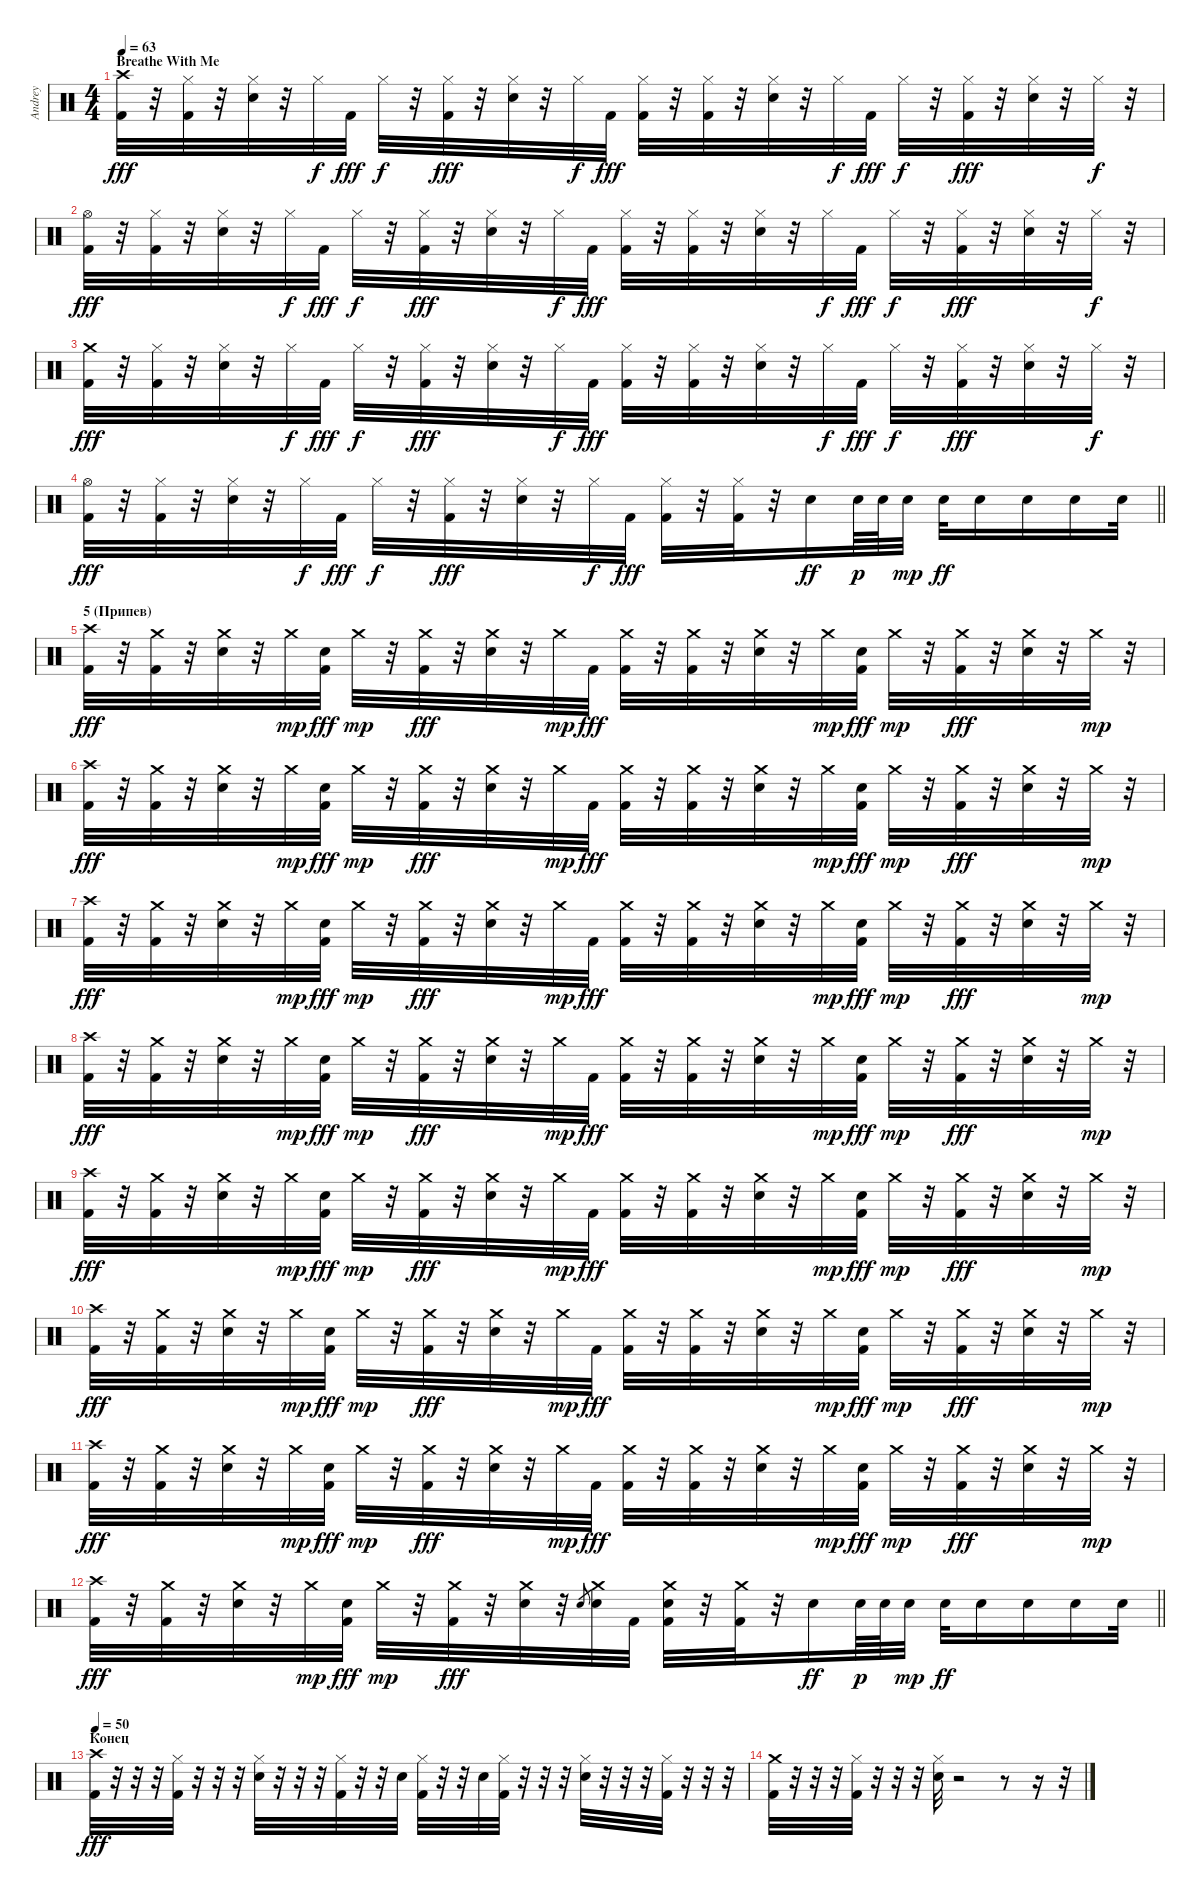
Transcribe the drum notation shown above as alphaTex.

\track ("Andrey" "Andrey") {instrument percussion}
\staff {score}
\articulation defaults
\ts (4 4)
\section ("" "Breathe With Me")
\tempo 63
\clef neutral
\ks c
("Crash high (hit)" "Kick (hit) 2").32{dy fff} r.32 ("Hi-Hat (closed)" "Kick (hit) 2").32 r.32 ("Hi-Hat (closed)" "Snare (hit) 2").32 r.32 "Hi-Hat (closed)".32{dy f} "Kick (hit) 2".32{dy fff} "Hi-Hat (closed)".32{dy f} r.32 ("Hi-Hat (closed)" "Kick (hit) 2").32{dy fff} r.32 ("Hi-Hat (closed)" "Snare (hit) 2").32 r.32 "Hi-Hat (closed)".32{dy f} "Kick (hit) 2".32{dy fff} ("Hi-Hat (closed)" "Kick (hit) 2").32 r.32 ("Hi-Hat (closed)" "Kick (hit) 2").32 r.32 ("Hi-Hat (closed)" "Snare (hit) 2").32 r.32 "Hi-Hat (closed)".32{dy f} "Kick (hit) 2".32{dy fff} "Hi-Hat (closed)".32{dy f} r.32 ("Hi-Hat (closed)" "Kick (hit) 2").32{dy fff} r.32 ("Hi-Hat (closed)" "Snare (hit) 2").32 r.32 "Hi-Hat (closed)".32{dy f} r.32 |
("Hi-Hat (open)" "Kick (hit) 2").32{dy fff} r.32 ("Hi-Hat (closed)" "Kick (hit) 2").32 r.32 ("Hi-Hat (closed)" "Snare (hit) 2").32 r.32 "Hi-Hat (closed)".32{dy f} "Kick (hit) 2".32{dy fff} "Hi-Hat (closed)".32{dy f} r.32 ("Hi-Hat (closed)" "Kick (hit) 2").32{dy fff} r.32 ("Hi-Hat (closed)" "Snare (hit) 2").32 r.32 "Hi-Hat (closed)".32{dy f} "Kick (hit) 2".32{dy fff} ("Hi-Hat (closed)" "Kick (hit) 2").32 r.32 ("Hi-Hat (closed)" "Kick (hit) 2").32 r.32 ("Hi-Hat (closed)" "Snare (hit) 2").32 r.32 "Hi-Hat (closed)".32{dy f} "Kick (hit) 2".32{dy fff} "Hi-Hat (closed)".32{dy f} r.32 ("Hi-Hat (closed)" "Kick (hit) 2").32{dy fff} r.32 ("Hi-Hat (closed)" "Snare (hit) 2").32 r.32 "Hi-Hat (closed)".32{dy f} r.32 |
("Crash medium (hit)" "Kick (hit) 2").32{dy fff} r.32 ("Hi-Hat (closed)" "Kick (hit) 2").32 r.32 ("Hi-Hat (closed)" "Snare (hit) 2").32 r.32 "Hi-Hat (closed)".32{dy f} "Kick (hit) 2".32{dy fff} "Hi-Hat (closed)".32{dy f} r.32 ("Hi-Hat (closed)" "Kick (hit) 2").32{dy fff} r.32 ("Hi-Hat (closed)" "Snare (hit) 2").32 r.32 "Hi-Hat (closed)".32{dy f} "Kick (hit) 2".32{dy fff} ("Hi-Hat (closed)" "Kick (hit) 2").32 r.32 ("Hi-Hat (closed)" "Kick (hit) 2").32 r.32 ("Hi-Hat (closed)" "Snare (hit) 2").32 r.32 "Hi-Hat (closed)".32{dy f} "Kick (hit) 2".32{dy fff} "Hi-Hat (closed)".32{dy f} r.32 ("Hi-Hat (closed)" "Kick (hit) 2").32{dy fff} r.32 ("Hi-Hat (closed)" "Snare (hit) 2").32 r.32 "Hi-Hat (closed)".32{dy f} r.32 |
\barLineRight lightlight
("Hi-Hat (open)" "Kick (hit) 2").32{dy fff} r.32 ("Hi-Hat (closed)" "Kick (hit) 2").32 r.32 ("Hi-Hat (closed)" "Snare (hit) 2").32 r.32 "Hi-Hat (closed)".32{dy f} "Kick (hit) 2".32{dy fff} "Hi-Hat (closed)".32{dy f} r.32 ("Hi-Hat (closed)" "Kick (hit) 2").32{dy fff} r.32 ("Hi-Hat (closed)" "Snare (hit) 2").32 r.32 "Hi-Hat (closed)".32{dy f} "Kick (hit) 2".32{dy fff} ("Hi-Hat (closed)" "Kick (hit) 2").32 r.32 ("Hi-Hat (closed)" "Kick (hit) 2").32 r.32 "Electric Snare (hit)".16{dy ff} "Electric Snare (hit)".64{dy p} "Electric Snare (hit)".64 "Electric Snare (hit)".32{dy mp} "Electric Snare (hit)".32{dy ff} "Electric Snare (hit)".16 "Electric Snare (hit)".16 "Electric Snare (hit)".16 "Electric Snare (hit)".32 |
\section ("" "5 (Припев)")
("Crash high (hit)" "Kick (hit) 2").32{dy fff} r.32 ("Crash medium (hit)" "Kick (hit) 2").32 r.32 ("Crash medium (hit)" "Snare (hit) 2").32 r.32 "Crash medium (hit)".32{dy mp} ("Snare (hit) 2" "Kick (hit) 2").32{dy fff} "Crash medium (hit)".32{dy mp} r.32 ("Crash medium (hit)" "Kick (hit) 2").32{dy fff} r.32 ("Crash medium (hit)" "Snare (hit) 2").32 r.32 "Crash medium (hit)".32{dy mp} "Kick (hit) 2".32{dy fff} ("Crash medium (hit)" "Kick (hit) 2").32 r.32 ("Crash medium (hit)" "Kick (hit) 2").32 r.32 ("Crash medium (hit)" "Snare (hit) 2").32 r.32 "Crash medium (hit)".32{dy mp} ("Snare (hit) 2" "Kick (hit) 2").32{dy fff} "Crash medium (hit)".32{dy mp} r.32 ("Crash medium (hit)" "Kick (hit) 2").32{dy fff} r.32 ("Crash medium (hit)" "Snare (hit) 2").32 r.32 "Crash medium (hit)".32{dy mp} r.32 |
("Crash high (hit)" "Kick (hit) 2").32{dy fff} r.32 ("Crash medium (hit)" "Kick (hit) 2").32 r.32 ("Crash medium (hit)" "Snare (hit) 2").32 r.32 "Crash medium (hit)".32{dy mp} ("Snare (hit) 2" "Kick (hit) 2").32{dy fff} "Crash medium (hit)".32{dy mp} r.32 ("Crash medium (hit)" "Kick (hit) 2").32{dy fff} r.32 ("Crash medium (hit)" "Snare (hit) 2").32 r.32 "Crash medium (hit)".32{dy mp} "Kick (hit) 2".32{dy fff} ("Crash medium (hit)" "Kick (hit) 2").32 r.32 ("Crash medium (hit)" "Kick (hit) 2").32 r.32 ("Crash medium (hit)" "Snare (hit) 2").32 r.32 "Crash medium (hit)".32{dy mp} ("Snare (hit) 2" "Kick (hit) 2").32{dy fff} "Crash medium (hit)".32{dy mp} r.32 ("Crash medium (hit)" "Kick (hit) 2").32{dy fff} r.32 ("Crash medium (hit)" "Snare (hit) 2").32 r.32 "Crash medium (hit)".32{dy mp} r.32 |
("Crash high (hit)" "Kick (hit) 2").32{dy fff} r.32 ("Crash medium (hit)" "Kick (hit) 2").32 r.32 ("Crash medium (hit)" "Snare (hit) 2").32 r.32 "Crash medium (hit)".32{dy mp} ("Snare (hit) 2" "Kick (hit) 2").32{dy fff} "Crash medium (hit)".32{dy mp} r.32 ("Crash medium (hit)" "Kick (hit) 2").32{dy fff} r.32 ("Crash medium (hit)" "Snare (hit) 2").32 r.32 "Crash medium (hit)".32{dy mp} "Kick (hit) 2".32{dy fff} ("Crash medium (hit)" "Kick (hit) 2").32 r.32 ("Crash medium (hit)" "Kick (hit) 2").32 r.32 ("Crash medium (hit)" "Snare (hit) 2").32 r.32 "Crash medium (hit)".32{dy mp} ("Snare (hit) 2" "Kick (hit) 2").32{dy fff} "Crash medium (hit)".32{dy mp} r.32 ("Crash medium (hit)" "Kick (hit) 2").32{dy fff} r.32 ("Crash medium (hit)" "Snare (hit) 2").32 r.32 "Crash medium (hit)".32{dy mp} r.32 |
("Crash high (hit)" "Kick (hit) 2").32{dy fff} r.32 ("Crash medium (hit)" "Kick (hit) 2").32 r.32 ("Crash medium (hit)" "Snare (hit) 2").32 r.32 "Crash medium (hit)".32{dy mp} ("Snare (hit) 2" "Kick (hit) 2").32{dy fff} "Crash medium (hit)".32{dy mp} r.32 ("Crash medium (hit)" "Kick (hit) 2").32{dy fff} r.32 ("Crash medium (hit)" "Snare (hit) 2").32 r.32 "Crash medium (hit)".32{dy mp} "Kick (hit) 2".32{dy fff} ("Crash medium (hit)" "Kick (hit) 2").32 r.32 ("Crash medium (hit)" "Kick (hit) 2").32 r.32 ("Crash medium (hit)" "Snare (hit) 2").32 r.32 "Crash medium (hit)".32{dy mp} ("Snare (hit) 2" "Kick (hit) 2").32{dy fff} "Crash medium (hit)".32{dy mp} r.32 ("Crash medium (hit)" "Kick (hit) 2").32{dy fff} r.32 ("Crash medium (hit)" "Snare (hit) 2").32 r.32 "Crash medium (hit)".32{dy mp} r.32 |
("Crash high (hit)" "Kick (hit) 2").32{dy fff} r.32 ("Crash medium (hit)" "Kick (hit) 2").32 r.32 ("Crash medium (hit)" "Snare (hit) 2").32 r.32 "Crash medium (hit)".32{dy mp} ("Snare (hit) 2" "Kick (hit) 2").32{dy fff} "Crash medium (hit)".32{dy mp} r.32 ("Crash medium (hit)" "Kick (hit) 2").32{dy fff} r.32 ("Crash medium (hit)" "Snare (hit) 2").32 r.32 "Crash medium (hit)".32{dy mp} "Kick (hit) 2".32{dy fff} ("Crash medium (hit)" "Kick (hit) 2").32 r.32 ("Crash medium (hit)" "Kick (hit) 2").32 r.32 ("Crash medium (hit)" "Snare (hit) 2").32 r.32 "Crash medium (hit)".32{dy mp} ("Snare (hit) 2" "Kick (hit) 2").32{dy fff} "Crash medium (hit)".32{dy mp} r.32 ("Crash medium (hit)" "Kick (hit) 2").32{dy fff} r.32 ("Crash medium (hit)" "Snare (hit) 2").32 r.32 "Crash medium (hit)".32{dy mp} r.32 |
("Crash high (hit)" "Kick (hit) 2").32{dy fff} r.32 ("Crash medium (hit)" "Kick (hit) 2").32 r.32 ("Crash medium (hit)" "Snare (hit) 2").32 r.32 "Crash medium (hit)".32{dy mp} ("Snare (hit) 2" "Kick (hit) 2").32{dy fff} "Crash medium (hit)".32{dy mp} r.32 ("Crash medium (hit)" "Kick (hit) 2").32{dy fff} r.32 ("Crash medium (hit)" "Snare (hit) 2").32 r.32 "Crash medium (hit)".32{dy mp} "Kick (hit) 2".32{dy fff} ("Crash medium (hit)" "Kick (hit) 2").32 r.32 ("Crash medium (hit)" "Kick (hit) 2").32 r.32 ("Crash medium (hit)" "Snare (hit) 2").32 r.32 "Crash medium (hit)".32{dy mp} ("Snare (hit) 2" "Kick (hit) 2").32{dy fff} "Crash medium (hit)".32{dy mp} r.32 ("Crash medium (hit)" "Kick (hit) 2").32{dy fff} r.32 ("Crash medium (hit)" "Snare (hit) 2").32 r.32 "Crash medium (hit)".32{dy mp} r.32 |
("Crash high (hit)" "Kick (hit) 2").32{dy fff} r.32 ("Crash medium (hit)" "Kick (hit) 2").32 r.32 ("Crash medium (hit)" "Snare (hit) 2").32 r.32 "Crash medium (hit)".32{dy mp} ("Snare (hit) 2" "Kick (hit) 2").32{dy fff} "Crash medium (hit)".32{dy mp} r.32 ("Crash medium (hit)" "Kick (hit) 2").32{dy fff} r.32 ("Crash medium (hit)" "Snare (hit) 2").32 r.32 "Crash medium (hit)".32{dy mp} "Kick (hit) 2".32{dy fff} ("Crash medium (hit)" "Kick (hit) 2").32 r.32 ("Crash medium (hit)" "Kick (hit) 2").32 r.32 ("Crash medium (hit)" "Snare (hit) 2").32 r.32 "Crash medium (hit)".32{dy mp} ("Snare (hit) 2" "Kick (hit) 2").32{dy fff} "Crash medium (hit)".32{dy mp} r.32 ("Crash medium (hit)" "Kick (hit) 2").32{dy fff} r.32 ("Crash medium (hit)" "Snare (hit) 2").32 r.32 "Crash medium (hit)".32{dy mp} r.32 |
\barLineRight lightlight
("Crash high (hit)" "Kick (hit) 2").32{dy fff} r.32 ("Crash medium (hit)" "Kick (hit) 2").32 r.32 ("Crash medium (hit)" "Snare (hit) 2").32 r.32 "Crash medium (hit)".32{dy mp} ("Snare (hit) 2" "Kick (hit) 2").32{dy fff} "Crash medium (hit)".32{dy mp} r.32 ("Crash medium (hit)" "Kick (hit) 2").32{dy fff} r.32 ("Crash medium (hit)" "Snare (hit) 2").32 r.32 "Snare (hit) 2".8{gr} ("Crash medium (hit)" "Electric Snare (hit)").32 "Kick (hit) 2".32 ("Crash medium (hit)" "Electric Snare (hit)" "Kick (hit) 2").32 r.32 ("Crash medium (hit)" "Kick (hit) 2").32 r.32 "Electric Snare (hit)".16{dy ff} "Electric Snare (hit)".64{dy p} "Electric Snare (hit)".64 "Electric Snare (hit)".32{dy mp} "Electric Snare (hit)".32{dy ff} "Electric Snare (hit)".16 "Electric Snare (hit)".16 "Electric Snare (hit)".16 "Electric Snare (hit)".32 |
\section ("" "Конец")
\tempo 50
("Crash high (hit)" "Kick (hit) 2").32{dy fff} r.32 r.32 r.32 ("Hi-Hat (closed)" "Kick (hit) 2").32 r.32 r.32 r.32 ("Hi-Hat (closed)" "Snare (hit) 2").32 r.32 r.32 r.32 ("Hi-Hat (closed)" "Kick (hit) 2").32 r.32 r.32 "Snare (hit) 2".32 ("Hi-Hat (closed)" "Kick (hit) 2").32 r.32 r.32 "Snare (hit) 2".32 ("Hi-Hat (closed)" "Kick (hit) 2").32 r.32 r.32 r.32 ("Hi-Hat (closed)" "Snare (hit) 2").32 r.32 r.32 r.32 ("Hi-Hat (closed)" "Kick (hit) 2").32 r.32 r.32 r.32 |
("Crash medium (hit)" "Kick (hit) 2").32 r.32 r.32 r.32 ("Hi-Hat (closed)" "Kick (hit) 2").32 r.32 r.32 r.32 ("Hi-Hat (closed)" "Snare (hit) 2").32 r.2 r.8 r.16 r.32
